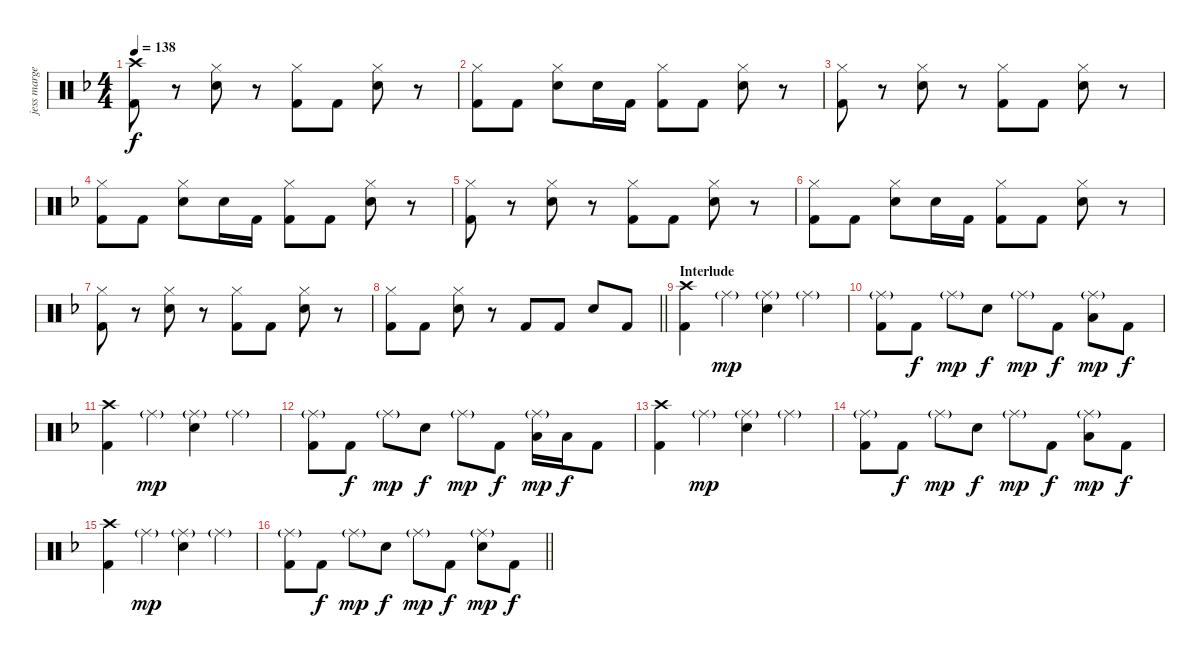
\track ("jess margera" "jess marge") {instrument percussion}
\staff {score}
\articulation defaults
\ts (4 4)
\tempo 138
\clef neutral
\ks f
("Crash high (hit)" "Kick (hit) 2").8{dy f} r.8 ("Hi-Hat (closed)" "Electric Snare (hit)").8 r.8 ("Hi-Hat (closed)" "Kick (hit) 2").8 "Kick (hit) 2".8 ("Hi-Hat (closed)" "Electric Snare (hit)").8 r.8 |
("Hi-Hat (closed)" "Kick (hit) 2").8 "Kick (hit) 2".8 ("Hi-Hat (closed)" "Electric Snare (hit)").8 "Electric Snare (hit)".16 "Kick (hit) 2".16 ("Hi-Hat (closed)" "Kick (hit) 2").8 "Kick (hit) 2".8 ("Hi-Hat (closed)" "Electric Snare (hit)").8 r.8 |
("Hi-Hat (closed)" "Kick (hit) 2").8 r.8 ("Hi-Hat (closed)" "Electric Snare (hit)").8 r.8 ("Hi-Hat (closed)" "Kick (hit) 2").8 "Kick (hit) 2".8 ("Hi-Hat (closed)" "Electric Snare (hit)").8 r.8 |
("Hi-Hat (closed)" "Kick (hit) 2").8 "Kick (hit) 2".8 ("Hi-Hat (closed)" "Electric Snare (hit)").8 "Electric Snare (hit)".16 "Kick (hit) 2".16 ("Hi-Hat (closed)" "Kick (hit) 2").8 "Kick (hit) 2".8 ("Hi-Hat (closed)" "Electric Snare (hit)").8 r.8 |
("Hi-Hat (closed)" "Kick (hit) 2").8 r.8 ("Hi-Hat (closed)" "Electric Snare (hit)").8 r.8 ("Hi-Hat (closed)" "Kick (hit) 2").8 "Kick (hit) 2".8 ("Hi-Hat (closed)" "Electric Snare (hit)").8 r.8 |
("Hi-Hat (closed)" "Kick (hit) 2").8 "Kick (hit) 2".8 ("Hi-Hat (closed)" "Electric Snare (hit)").8 "Electric Snare (hit)".16 "Kick (hit) 2".16 ("Hi-Hat (closed)" "Kick (hit) 2").8 "Kick (hit) 2".8 ("Hi-Hat (closed)" "Electric Snare (hit)").8 r.8 |
("Hi-Hat (closed)" "Kick (hit) 2").8 r.8 ("Hi-Hat (closed)" "Electric Snare (hit)").8 r.8 ("Hi-Hat (closed)" "Kick (hit) 2").8 "Kick (hit) 2".8 ("Hi-Hat (closed)" "Electric Snare (hit)").8 r.8 |
\barLineRight lightlight
("Hi-Hat (closed)" "Kick (hit) 2").8 "Kick (hit) 2".8 ("Hi-Hat (closed)" "Electric Snare (hit)").8 r.8 "Kick (hit) 2".8 "Kick (hit) 2".8 "Electric Snare (hit)".8 "Kick (hit) 2".8 |
\section ("" "Interlude")
("Crash high (hit)" "Kick (hit) 2").4 "Ride (middle)"{g}.4{dy mp} ("Ride (middle)"{g} "Electric Snare (hit)").4 "Ride (middle)"{g}.4 |
("Ride (middle)"{g} "Kick (hit) 2").8 "Kick (hit) 2".8{dy f} "Ride (middle)"{g}.8{dy mp} "Electric Snare (hit)".8{dy f} "Ride (middle)"{g}.8{dy mp} "Kick (hit) 2".8{dy f} ("Ride (middle)"{g} "Low Floor Tom (hit)").8{dy mp} "Kick (hit) 2".8{dy f} |
("Crash high (hit)" "Kick (hit) 2").4 "Ride (middle)"{g}.4{dy mp} ("Ride (middle)"{g} "Electric Snare (hit)").4 "Ride (middle)"{g}.4 |
("Ride (middle)"{g} "Kick (hit) 2").8 "Kick (hit) 2".8{dy f} "Ride (middle)"{g}.8{dy mp} "Electric Snare (hit)".8{dy f} "Ride (middle)"{g}.8{dy mp} "Kick (hit) 2".8{dy f} ("Ride (middle)"{g} "Low Tom (hit)").16{dy mp} "Low Tom (hit)".16{dy f} "Kick (hit) 2".8 |
("Crash high (hit)" "Kick (hit) 2").4 "Ride (middle)"{g}.4{dy mp} ("Ride (middle)"{g} "Electric Snare (hit)").4 "Ride (middle)"{g}.4 |
("Ride (middle)"{g} "Kick (hit) 2").8 "Kick (hit) 2".8{dy f} "Ride (middle)"{g}.8{dy mp} "Electric Snare (hit)".8{dy f} "Ride (middle)"{g}.8{dy mp} "Kick (hit) 2".8{dy f} ("Ride (middle)"{g} "Low Floor Tom (hit)").8{dy mp} "Kick (hit) 2".8{dy f} |
("Crash high (hit)" "Kick (hit) 2").4 "Ride (middle)"{g}.4{dy mp} ("Ride (middle)"{g} "Electric Snare (hit)").4 "Ride (middle)"{g}.4 |
\barLineRight lightlight
("Ride (middle)"{g} "Kick (hit) 2").8 "Kick (hit) 2".8{dy f} "Ride (middle)"{g}.8{dy mp} "Electric Snare (hit)".8{dy f} "Ride (middle)"{g}.8{dy mp} "Kick (hit) 2".8{dy f} ("Ride (middle)"{g} "Electric Snare (hit)").8{dy mp} "Kick (hit) 2".8{dy f}
